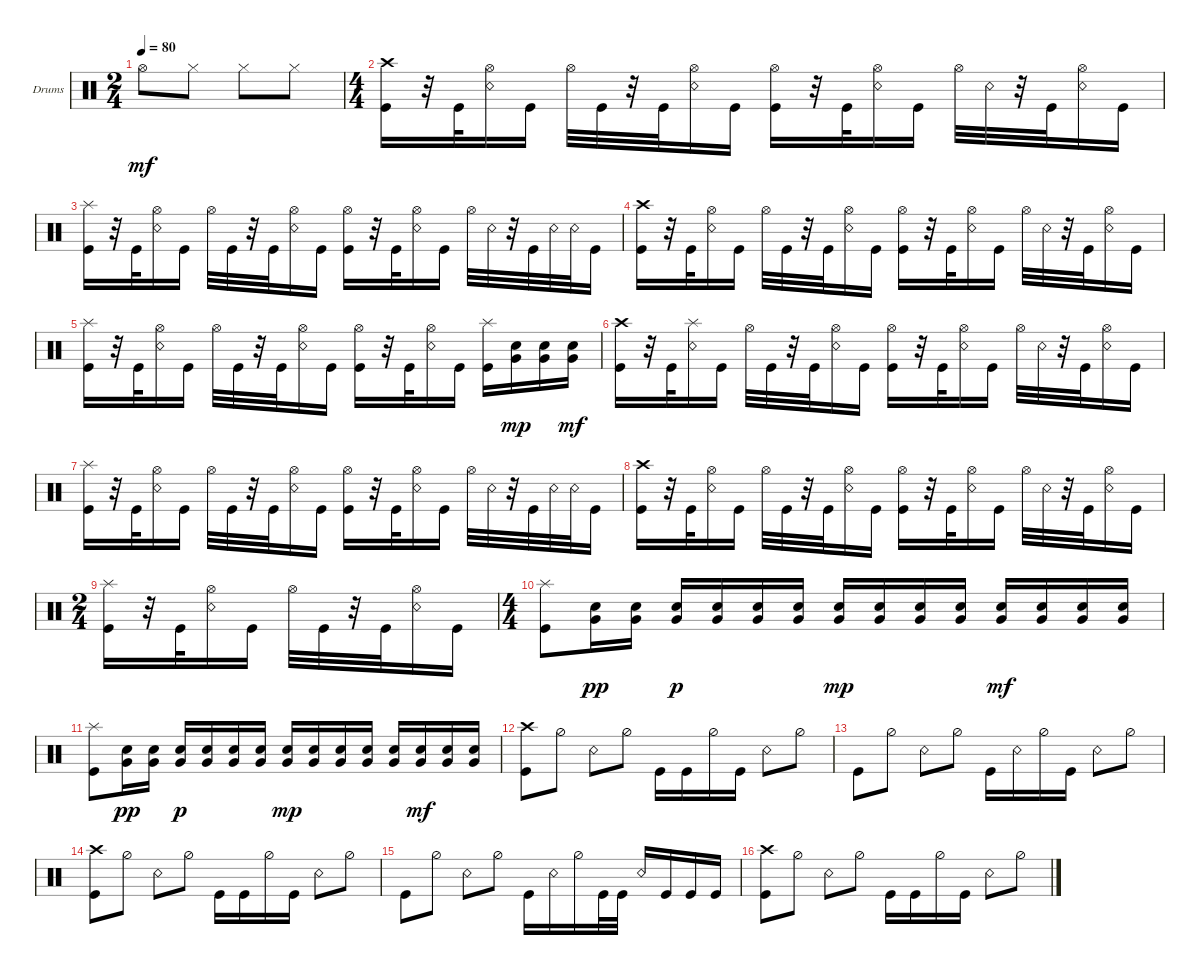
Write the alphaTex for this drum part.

\defaultSystemsLayout 4
\bracketExtendMode groupsimilarinstruments
\firstSystemTrackNameOrientation horizontal
\otherSystemsTrackNameOrientation horizontal
\track ("Drumkit" "Drums") {instrument percussion}
\staff {score}
\articulation defaults
\ts (2 4)
\tempo 80
\clef neutral
\ks c "Hi-Hat (open)".8{dy mf} "Hi-Hat (closed)".8 "Hi-Hat (closed)".8 "Hi-Hat (closed)".8
|
\ts (4 4)
("Kick (hit)" "Crash high (hit)").16 r.32 "Kick (hit)".32 ("Snare (rim shot)" "Hi-Hat (open)").16 "Kick (hit)".16 "Hi-Hat (open)".32 "Kick (hit)".32 r.32 "Kick (hit)".32 ("Snare (rim shot)" "Hi-Hat (open)").16 "Kick (hit)".16 ("Kick (hit)" "Hi-Hat (open)").16 r.32 "Kick (hit)".32 ("Snare (rim shot)" "Hi-Hat (open)").16 "Kick (hit)".16 "Hi-Hat (open)".32 "Snare (rim shot)".32 r.32 "Kick (hit)".32 ("Snare (rim shot)" "Hi-Hat (open)").16 "Kick (hit)".16 |
("Kick (hit)" "Splash (hit)").16 r.32 "Kick (hit)".32 ("Snare (rim shot)" "Hi-Hat (open)").16 "Kick (hit)".16 "Hi-Hat (open)".32 "Kick (hit)".32 r.32 "Kick (hit)".32 ("Snare (rim shot)" "Hi-Hat (open)").16 "Kick (hit)".16 ("Kick (hit)" "Hi-Hat (open)").16 r.32 "Kick (hit)".32 ("Snare (rim shot)" "Hi-Hat (open)").16 "Kick (hit)".16 "Hi-Hat (open)".32 "Snare (rim shot)".32 r.32 "Kick (hit)".32 "Snare (rim shot)".32 "Snare (rim shot)".32 "Kick (hit)".16 |
("Kick (hit)" "Crash high (hit)").16 r.32 "Kick (hit)".32 ("Snare (rim shot)" "Hi-Hat (open)").16 "Kick (hit)".16 "Hi-Hat (open)".32 "Kick (hit)".32 r.32 "Kick (hit)".32 ("Snare (rim shot)" "Hi-Hat (open)").16 "Kick (hit)".16 ("Kick (hit)" "Hi-Hat (open)").16 r.32 "Kick (hit)".32 ("Snare (rim shot)" "Hi-Hat (open)").16 "Kick (hit)".16 "Hi-Hat (open)".32 "Snare (rim shot)".32 r.32 "Kick (hit)".32 ("Snare (rim shot)" "Hi-Hat (open)").16 "Kick (hit)".16 |
("Kick (hit)" "Splash (hit)").16 r.32 "Kick (hit)".32 ("Snare (rim shot)" "Hi-Hat (open)").16 "Kick (hit)".16 "Hi-Hat (open)".32 "Kick (hit)".32 r.32 "Kick (hit)".32 ("Snare (rim shot)" "Hi-Hat (open)").16 "Kick (hit)".16 ("Kick (hit)" "Hi-Hat (open)").16 r.32 "Kick (hit)".32 ("Snare (rim shot)" "Hi-Hat (open)").16 "Kick (hit)".16 ("Kick (hit)" "Splash (hit)").16 ("Very Low Tom (hit)" "Snare (hit) 2").16{dy mp} ("Snare (hit) 2" "Very Low Tom (hit)").16 ("Snare (hit) 2" "Very Low Tom (hit)").16{dy mf} |
("Kick (hit)" "Crash high (hit)").16 r.32 "Kick (hit)".32 ("Snare (rim shot)" "Splash (hit)").16 "Kick (hit)".16 "Hi-Hat (open)".32 "Kick (hit)".32 r.32 "Kick (hit)".32 ("Snare (rim shot)" "Hi-Hat (open)").16 "Kick (hit)".16 ("Kick (hit)" "Hi-Hat (open)").16 r.32 "Kick (hit)".32 ("Snare (rim shot)" "Hi-Hat (open)").16 "Kick (hit)".16 "Hi-Hat (open)".32 "Snare (rim shot)".32 r.32 "Kick (hit)".32 ("Snare (rim shot)" "Hi-Hat (open)").16 "Kick (hit)".16 |
("Kick (hit)" "Splash (hit)").16 r.32 "Kick (hit)".32 ("Snare (rim shot)" "Hi-Hat (open)").16 "Kick (hit)".16 "Hi-Hat (open)".32 "Kick (hit)".32 r.32 "Kick (hit)".32 ("Snare (rim shot)" "Hi-Hat (open)").16 "Kick (hit)".16 ("Kick (hit)" "Hi-Hat (open)").16 r.32 "Kick (hit)".32 ("Snare (rim shot)" "Hi-Hat (open)").16 "Kick (hit)".16 "Hi-Hat (open)".32 "Snare (rim shot)".32 r.32 "Kick (hit)".32 "Snare (rim shot)".32 "Snare (rim shot)".32 "Kick (hit)".16 |
("Kick (hit)" "Crash high (hit)").16 r.32 "Kick (hit)".32 ("Snare (rim shot)" "Hi-Hat (open)").16 "Kick (hit)".16 "Hi-Hat (open)".32 "Kick (hit)".32 r.32 "Kick (hit)".32 ("Snare (rim shot)" "Hi-Hat (open)").16 "Kick (hit)".16 ("Kick (hit)" "Hi-Hat (open)").16 r.32 "Kick (hit)".32 ("Snare (rim shot)" "Hi-Hat (open)").16 "Kick (hit)".16 "Hi-Hat (open)".32 "Snare (rim shot)".32 r.32 "Kick (hit)".32 ("Snare (rim shot)" "Hi-Hat (open)").16 "Kick (hit)".16 |
\ts (2 4)
("Kick (hit)" "Splash (hit)").16 r.32 "Kick (hit)".32 ("Snare (rim shot)" "Hi-Hat (open)").16 "Kick (hit)".16 "Hi-Hat (open)".32 "Kick (hit)".32 r.32 "Kick (hit)".32 ("Snare (rim shot)" "Hi-Hat (open)").16 "Kick (hit)".16 |
\ts (4 4)
("Kick (hit)" "Splash (hit)").8 ("Very Low Tom (hit)" "Snare (hit) 2").16{dy pp} ("Very Low Tom (hit)" "Snare (hit) 2").16 ("Very Low Tom (hit)" "Snare (hit) 2").16{dy p} ("Very Low Tom (hit)" "Snare (hit) 2").16 ("Very Low Tom (hit)" "Snare (hit) 2").16 ("Very Low Tom (hit)" "Snare (hit) 2").16 ("Very Low Tom (hit)" "Snare (hit) 2").16{dy mp} ("Very Low Tom (hit)" "Snare (hit) 2").16 ("Very Low Tom (hit)" "Snare (hit) 2").16 ("Very Low Tom (hit)" "Snare (hit) 2").16 ("Very Low Tom (hit)" "Snare (hit) 2").16{dy mf} ("Very Low Tom (hit)" "Snare (hit) 2").16 ("Very Low Tom (hit)" "Snare (hit) 2").16 ("Very Low Tom (hit)" "Snare (hit) 2").16 |
("Kick (hit)" "Splash (hit)").8 ("Very Low Tom (hit)" "Snare (hit) 2").16{dy pp} ("Very Low Tom (hit)" "Snare (hit) 2").16 ("Very Low Tom (hit)" "Snare (hit) 2").16{dy p} ("Very Low Tom (hit)" "Snare (hit) 2").16 ("Very Low Tom (hit)" "Snare (hit) 2").16 ("Very Low Tom (hit)" "Snare (hit) 2").16 ("Very Low Tom (hit)" "Snare (hit) 2").16{dy mp} ("Very Low Tom (hit)" "Snare (hit) 2").16 ("Very Low Tom (hit)" "Snare (hit) 2").16 ("Very Low Tom (hit)" "Snare (hit) 2").16 ("Very Low Tom (hit)" "Snare (hit) 2").16 ("Very Low Tom (hit)" "Snare (hit) 2").16{dy mf} ("Very Low Tom (hit)" "Snare (hit) 2").16 ("Very Low Tom (hit)" "Snare (hit) 2").16 |
("Kick (hit)" "Crash high (hit)").8 "Hi-Hat (half)".8 "Snare (rim shot)".8 "Hi-Hat (half)".8 "Kick (hit)".16 "Kick (hit)".16 "Hi-Hat (half)".16 "Kick (hit)".16 "Snare (rim shot)".8 "Hi-Hat (half)".8 |
"Kick (hit)".8 "Hi-Hat (half)".8 "Snare (rim shot)".8 "Hi-Hat (half)".8 "Kick (hit)".16 "Snare (rim shot)".16 "Hi-Hat (half)".16 "Kick (hit)".16 "Snare (rim shot)".8 "Hi-Hat (half)".8 |
("Kick (hit)" "Crash high (hit)").8 "Hi-Hat (half)".8 "Snare (rim shot)".8 "Hi-Hat (half)".8 "Kick (hit)".16 "Kick (hit)".16 "Hi-Hat (half)".16 "Kick (hit)".16 "Snare (rim shot)".8 "Hi-Hat (half)".8 |
"Kick (hit)".8 "Hi-Hat (half)".8 "Snare (rim shot)".8 "Hi-Hat (half)".8 "Kick (hit)".16 "Snare (rim shot)".16 "Hi-Hat (half)".16 "Kick (hit)".32 "Kick (hit)".32 "Snare (rim shot)".16 "Kick (hit)".16 "Kick (hit)".16 "Kick (hit)".16 |
("Kick (hit)" "Crash high (hit)").8 "Hi-Hat (half)".8 "Snare (rim shot)".8 "Hi-Hat (half)".8 "Kick (hit)".16 "Kick (hit)".16 "Hi-Hat (half)".16 "Kick (hit)".16 "Snare (rim shot)".8 "Hi-Hat (half)".8
